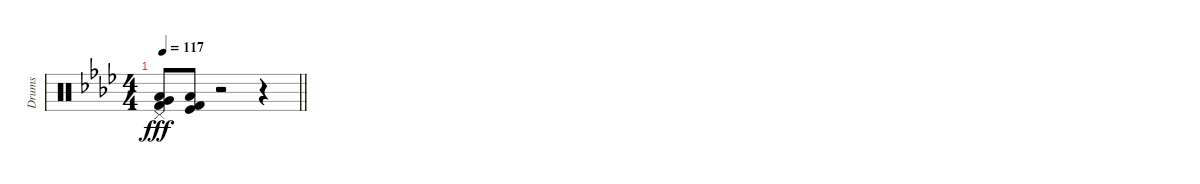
\track ("Drums" "Drums") {instrument percussion}
\staff {score}
\articulation defaults
\ts (4 4)
\tempo 117
\clef neutral
\barLineRight lightlight
\ks ab
("Pedal Hi-Hat (hit)" "Low Floor Tom (hit)" "Very Low Tom (hit)" "Kick (hit) 2").8{dy fff} ("Kick (hit) 2" "Low Floor Tom (hit)" "Kick (hit)").8 r.2 r.4
